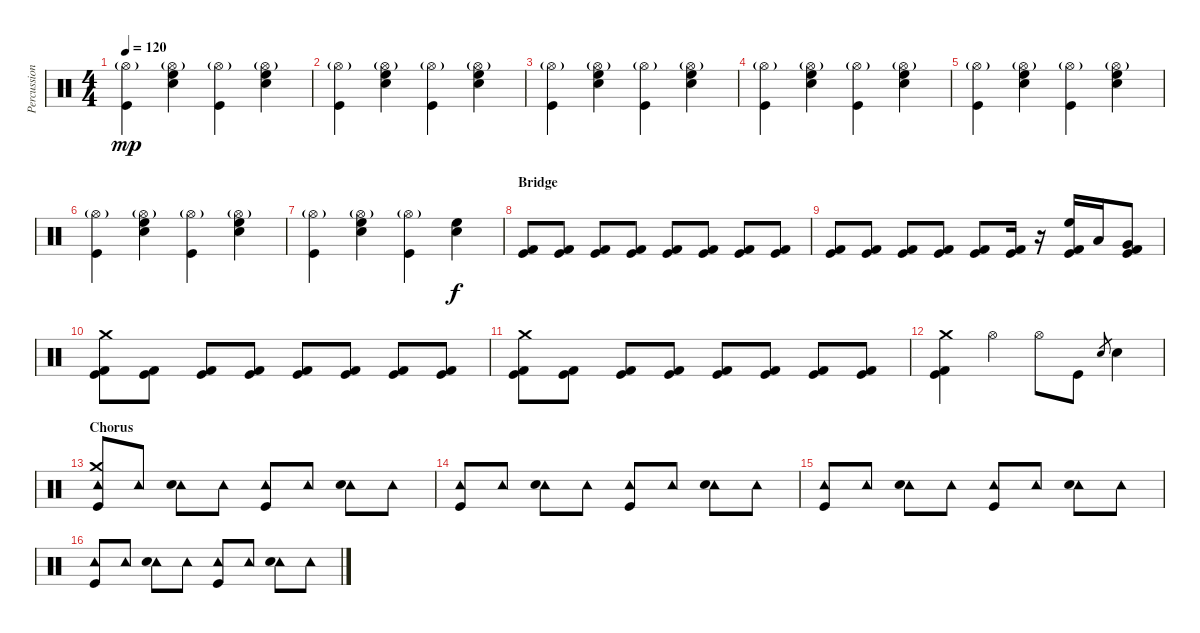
\track ("Percussion" "Percussion") {instrument percussion}
\staff {score}
\articulation defaults
\ts (4 4)
\tempo 120
\clef neutral
\ks c
("Hi-Hat (open)"{g} "Kick (hit)").4{dy mp} ("Hi-Hat (open)"{g} "High Floor Tom (hit)" "Electric Snare (hit)").4 ("Hi-Hat (open)"{g} "Kick (hit)").4 ("Hi-Hat (open)"{g} "High Floor Tom (hit)" "Electric Snare (hit)").4 |
("Hi-Hat (open)"{g} "Kick (hit)").4 ("Hi-Hat (open)"{g} "High Floor Tom (hit)" "Electric Snare (hit)").4 ("Hi-Hat (open)"{g} "Kick (hit)").4 ("Hi-Hat (open)"{g} "High Floor Tom (hit)" "Electric Snare (hit)").4 |
("Hi-Hat (open)"{g} "Kick (hit)").4 ("Hi-Hat (open)"{g} "High Floor Tom (hit)" "Electric Snare (hit)").4 ("Hi-Hat (open)"{g} "Kick (hit)").4 ("Hi-Hat (open)"{g} "High Floor Tom (hit)" "Electric Snare (hit)").4 |
("Hi-Hat (open)"{g} "Kick (hit)").4 ("Hi-Hat (open)"{g} "High Floor Tom (hit)" "Electric Snare (hit)").4 ("Hi-Hat (open)"{g} "Kick (hit)").4 ("Hi-Hat (open)"{g} "High Floor Tom (hit)" "Electric Snare (hit)").4 |
("Hi-Hat (open)"{g} "Kick (hit)").4 ("Hi-Hat (open)"{g} "High Floor Tom (hit)" "Electric Snare (hit)").4 ("Hi-Hat (open)"{g} "Kick (hit)").4 ("Hi-Hat (open)"{g} "High Floor Tom (hit)" "Electric Snare (hit)").4 |
("Hi-Hat (open)"{g} "Kick (hit)").4 ("Hi-Hat (open)"{g} "High Floor Tom (hit)" "Electric Snare (hit)").4 ("Hi-Hat (open)"{g} "Kick (hit)").4 ("Hi-Hat (open)"{g} "High Floor Tom (hit)" "Electric Snare (hit)").4 |
("Hi-Hat (open)"{g} "Kick (hit)").4 ("Hi-Hat (open)"{g} "High Floor Tom (hit)" "Electric Snare (hit)").4 ("Hi-Hat (open)"{g} "Kick (hit)").4 ("High Floor Tom (hit)" "Electric Snare (hit)").4{dy f} |
\section ("" "Bridge")
("Kick (hit) 2" "Kick (hit)").8 ("Kick (hit) 2" "Kick (hit)").8 ("Kick (hit) 2" "Kick (hit)").8 ("Kick (hit) 2" "Kick (hit)").8 ("Kick (hit) 2" "Kick (hit)").8 ("Kick (hit) 2" "Kick (hit)").8 ("Kick (hit) 2" "Kick (hit)").8 ("Kick (hit) 2" "Kick (hit)").8 |
("Kick (hit) 2" "Kick (hit)").8 ("Kick (hit) 2" "Kick (hit)").8 ("Kick (hit) 2" "Kick (hit)").8 ("Kick (hit) 2" "Kick (hit)").8 ("Kick (hit) 2" "Kick (hit)").8 ("Kick (hit) 2" "Kick (hit)").16 r.16 ("High Floor Tom (hit)" "Kick (hit) 2" "Kick (hit)").16 "Low Tom (hit)".16 ("Very Low Tom (hit)" "Kick (hit) 2" "Kick (hit)").8 |
("Crash medium (hit)" "Kick (hit) 2" "Kick (hit)").8 ("Kick (hit) 2" "Kick (hit)").8 ("Kick (hit) 2" "Kick (hit)").8 ("Kick (hit) 2" "Kick (hit)").8 ("Kick (hit) 2" "Kick (hit)").8 ("Kick (hit) 2" "Kick (hit)").8 ("Kick (hit) 2" "Kick (hit)").8 ("Kick (hit) 2" "Kick (hit)").8 |
("Crash medium (hit)" "Kick (hit) 2" "Kick (hit)").8 ("Kick (hit) 2" "Kick (hit)").8 ("Kick (hit) 2" "Kick (hit)").8 ("Kick (hit) 2" "Kick (hit)").8 ("Kick (hit) 2" "Kick (hit)").8 ("Kick (hit) 2" "Kick (hit)").8 ("Kick (hit) 2" "Kick (hit)").8 ("Kick (hit) 2" "Kick (hit)").8 |
("Crash medium (hit)" "Kick (hit) 2" "Kick (hit)").4 "Hi-Hat (open)".4 "Hi-Hat (open)".8 "Kick (hit)".8 "Electric Snare (hit)".8{gr} "Electric Snare (hit)".4 |
\section ("" "Chorus")
("Crash medium (hit)" "Tambourine (hit)" "Kick (hit)").8 "Tambourine (hit)".8 ("Tambourine (hit)" "Electric Snare (hit)").8 "Tambourine (hit)".8 ("Tambourine (hit)" "Kick (hit)").8 "Tambourine (hit)".8 ("Tambourine (hit)" "Electric Snare (hit)").8 "Tambourine (hit)".8 |
("Tambourine (hit)" "Kick (hit)").8 "Tambourine (hit)".8 ("Tambourine (hit)" "Electric Snare (hit)").8 "Tambourine (hit)".8 ("Tambourine (hit)" "Kick (hit)").8 "Tambourine (hit)".8 ("Tambourine (hit)" "Electric Snare (hit)").8 "Tambourine (hit)".8 |
("Tambourine (hit)" "Kick (hit)").8 "Tambourine (hit)".8 ("Tambourine (hit)" "Electric Snare (hit)").8 "Tambourine (hit)".8 ("Tambourine (hit)" "Kick (hit)").8 "Tambourine (hit)".8 ("Tambourine (hit)" "Electric Snare (hit)").8 "Tambourine (hit)".8 |
("Tambourine (hit)" "Kick (hit)").8 "Tambourine (hit)".8 ("Tambourine (hit)" "Electric Snare (hit)").8 "Tambourine (hit)".8 ("Tambourine (hit)" "Kick (hit)").8 "Tambourine (hit)".8 ("Tambourine (hit)" "Electric Snare (hit)").8 "Tambourine (hit)".8
